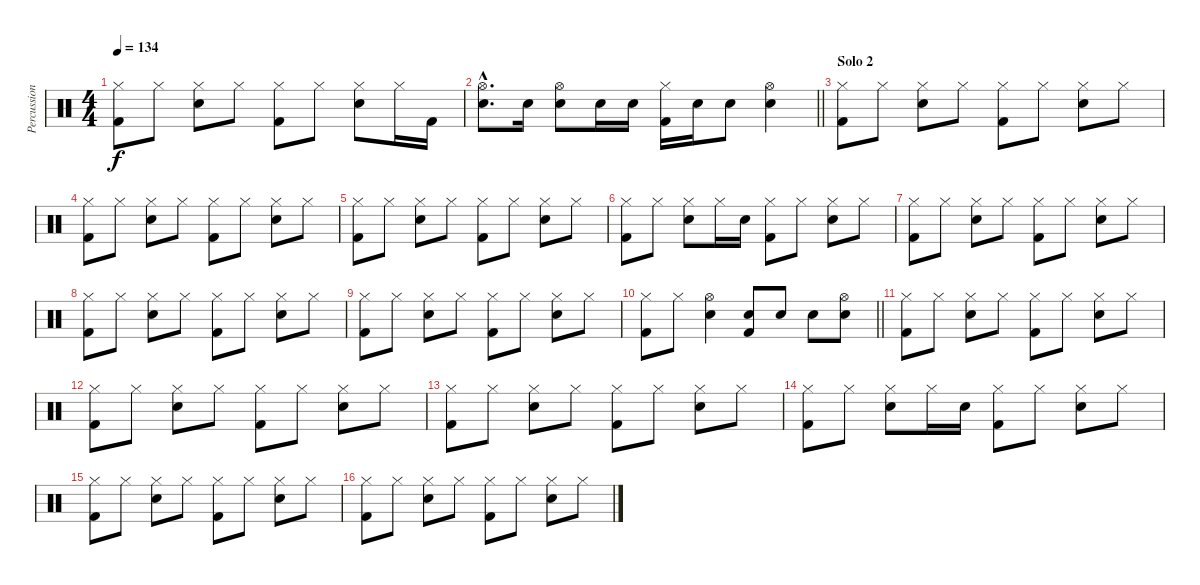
\track ("Percussion" "Percussion") {instrument percussion}
\staff {score}
\articulation defaults
\ts (4 4)
\tempo 134
\clef neutral
\ks c
("Hi-Hat (closed)" "Kick (hit) 2").8{dy f} "Hi-Hat (closed)".8 ("Hi-Hat (closed)" "Snare (hit) 2").8 "Hi-Hat (closed)".8 ("Hi-Hat (closed)" "Kick (hit) 2").8 "Hi-Hat (closed)".8 ("Hi-Hat (closed)" "Snare (hit) 2").8 "Hi-Hat (closed)".16 "Kick (hit) 2".16 |
\barLineRight lightlight
("Hi-Hat (open)"{hac} "Snare (hit) 2"{hac}).8{d} "Snare (hit) 2".16 ("Hi-Hat (open)" "Snare (hit) 2").8 "Snare (hit) 2".16 "Snare (hit) 2".16 ("Hi-Hat (closed)" "Kick (hit) 2").16 "Snare (hit) 2".16 "Snare (hit) 2".8 ("Hi-Hat (open)" "Snare (hit) 2").4 |
\section ("" "Solo 2")
("Hi-Hat (closed)" "Kick (hit) 2").8 "Hi-Hat (closed)".8 ("Hi-Hat (closed)" "Snare (hit) 2").8 "Hi-Hat (closed)".8 ("Hi-Hat (closed)" "Kick (hit) 2").8 "Hi-Hat (closed)".8 ("Hi-Hat (closed)" "Snare (hit) 2").8 "Hi-Hat (closed)".8 |
("Hi-Hat (closed)" "Kick (hit) 2").8 "Hi-Hat (closed)".8 ("Hi-Hat (closed)" "Snare (hit) 2").8 "Hi-Hat (closed)".8 ("Hi-Hat (closed)" "Kick (hit) 2").8 "Hi-Hat (closed)".8 ("Hi-Hat (closed)" "Snare (hit) 2").8 "Hi-Hat (closed)".8 |
("Hi-Hat (closed)" "Kick (hit) 2").8 "Hi-Hat (closed)".8 ("Hi-Hat (closed)" "Snare (hit) 2").8 "Hi-Hat (closed)".8 ("Hi-Hat (closed)" "Kick (hit) 2").8 "Hi-Hat (closed)".8 ("Hi-Hat (closed)" "Snare (hit) 2").8 "Hi-Hat (closed)".8 |
("Hi-Hat (closed)" "Kick (hit) 2").8 "Hi-Hat (closed)".8 ("Hi-Hat (closed)" "Snare (hit) 2").8 "Hi-Hat (closed)".16 "Snare (hit) 2".16 ("Hi-Hat (closed)" "Kick (hit) 2").8 "Hi-Hat (closed)".8 ("Hi-Hat (closed)" "Snare (hit) 2").8 "Hi-Hat (closed)".8 |
("Hi-Hat (closed)" "Kick (hit) 2").8 "Hi-Hat (closed)".8 ("Hi-Hat (closed)" "Snare (hit) 2").8 "Hi-Hat (closed)".8 ("Hi-Hat (closed)" "Kick (hit) 2").8 "Hi-Hat (closed)".8 ("Hi-Hat (closed)" "Snare (hit) 2").8 "Hi-Hat (closed)".8 |
("Hi-Hat (closed)" "Kick (hit) 2").8 "Hi-Hat (closed)".8 ("Hi-Hat (closed)" "Snare (hit) 2").8 "Hi-Hat (closed)".8 ("Hi-Hat (closed)" "Kick (hit) 2").8 "Hi-Hat (closed)".8 ("Hi-Hat (closed)" "Snare (hit) 2").8 "Hi-Hat (closed)".8 |
("Hi-Hat (closed)" "Kick (hit) 2").8 "Hi-Hat (closed)".8 ("Hi-Hat (closed)" "Snare (hit) 2").8 "Hi-Hat (closed)".8 ("Hi-Hat (closed)" "Kick (hit) 2").8 "Hi-Hat (closed)".8 ("Hi-Hat (closed)" "Snare (hit) 2").8 "Hi-Hat (closed)".8 |
\barLineRight lightlight
("Hi-Hat (closed)" "Kick (hit) 2").8 "Hi-Hat (closed)".8 ("Hi-Hat (open)" "Snare (hit) 2").4 ("Snare (hit) 2" "Kick (hit) 2").8 "Snare (hit) 2".8 "Snare (hit) 2".8 ("Hi-Hat (open)" "Snare (hit) 2").8 |
("Hi-Hat (closed)" "Kick (hit) 2").8 "Hi-Hat (closed)".8 ("Hi-Hat (closed)" "Snare (hit) 2").8 "Hi-Hat (closed)".8 ("Hi-Hat (closed)" "Kick (hit) 2").8 "Hi-Hat (closed)".8 ("Hi-Hat (closed)" "Snare (hit) 2").8 "Hi-Hat (closed)".8 |
("Hi-Hat (closed)" "Kick (hit) 2").8 "Hi-Hat (closed)".8 ("Hi-Hat (closed)" "Snare (hit) 2").8 "Hi-Hat (closed)".8 ("Hi-Hat (closed)" "Kick (hit) 2").8 "Hi-Hat (closed)".8 ("Hi-Hat (closed)" "Snare (hit) 2").8 "Hi-Hat (closed)".8 |
("Hi-Hat (closed)" "Kick (hit) 2").8 "Hi-Hat (closed)".8 ("Hi-Hat (closed)" "Snare (hit) 2").8 "Hi-Hat (closed)".8 ("Hi-Hat (closed)" "Kick (hit) 2").8 "Hi-Hat (closed)".8 ("Hi-Hat (closed)" "Snare (hit) 2").8 "Hi-Hat (closed)".8 |
("Hi-Hat (closed)" "Kick (hit) 2").8 "Hi-Hat (closed)".8 ("Hi-Hat (closed)" "Snare (hit) 2").8 "Hi-Hat (closed)".16 "Snare (hit) 2".16 ("Hi-Hat (closed)" "Kick (hit) 2").8 "Hi-Hat (closed)".8 ("Hi-Hat (closed)" "Snare (hit) 2").8 "Hi-Hat (closed)".8 |
("Hi-Hat (closed)" "Kick (hit) 2").8 "Hi-Hat (closed)".8 ("Hi-Hat (closed)" "Snare (hit) 2").8 "Hi-Hat (closed)".8 ("Hi-Hat (closed)" "Kick (hit) 2").8 "Hi-Hat (closed)".8 ("Hi-Hat (closed)" "Snare (hit) 2").8 "Hi-Hat (closed)".8 |
("Hi-Hat (closed)" "Kick (hit) 2").8 "Hi-Hat (closed)".8 ("Hi-Hat (closed)" "Snare (hit) 2").8 "Hi-Hat (closed)".8 ("Hi-Hat (closed)" "Kick (hit) 2").8 "Hi-Hat (closed)".8 ("Hi-Hat (closed)" "Snare (hit) 2").8 "Hi-Hat (closed)".8
